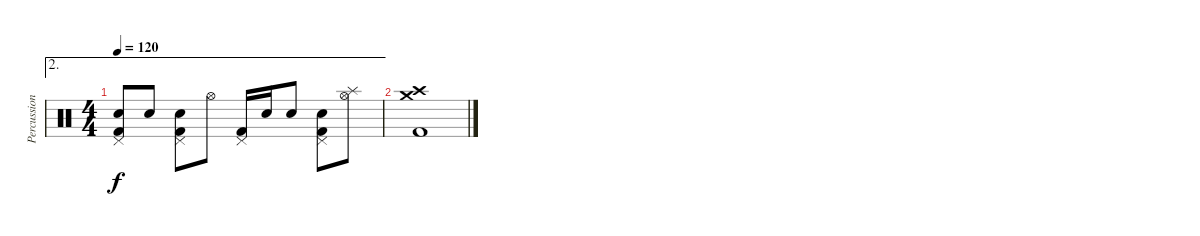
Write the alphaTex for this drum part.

\track ("Percussion" "Percussion") {instrument percussion}
\staff {score}
\articulation defaults
\ae 2
\ts (4 4)
\tempo 120
\clef neutral
\ks c
("Kick (hit) 2" "Pedal Hi-Hat (hit)" "Snare (hit) 2").8{dy f volume 0} "Snare (hit) 2".8 ("Kick (hit) 2" "Pedal Hi-Hat (hit)" "Electric Snare (hit)").8 "Hi-Hat (open)".8 ("Kick (hit) 2" "Pedal Hi-Hat (hit)").16 "Electric Snare (hit)".16 "Snare (hit) 2".8 ("Kick (hit) 2" "Pedal Hi-Hat (hit)" "Electric Snare (hit)").8 ("Hi-Hat (open)" "Splash (hit)").8 |
("Crash medium (hit)" "Crash high (hit)" "Kick (hit) 2").1
